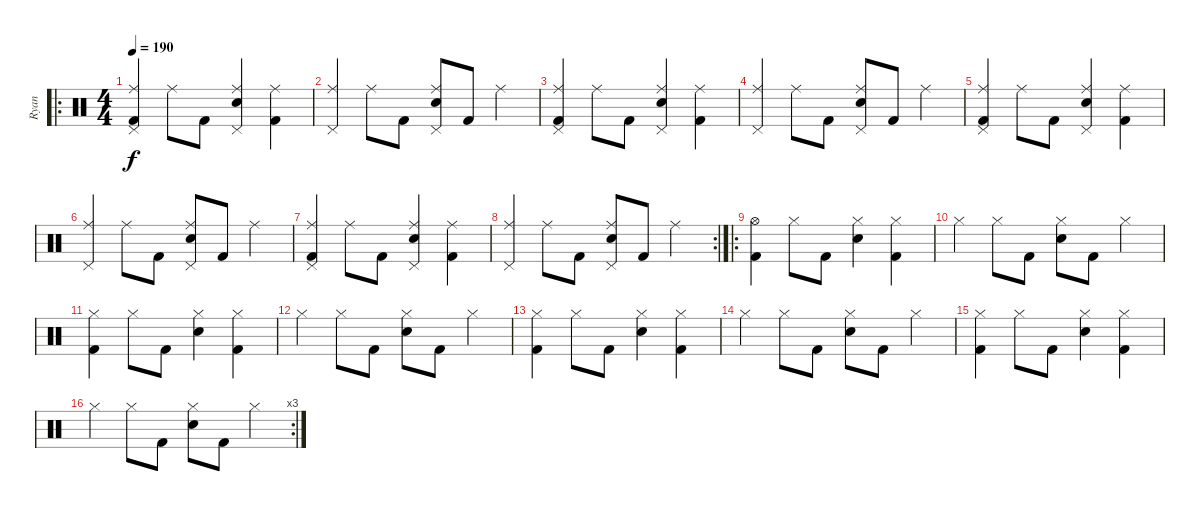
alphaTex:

\track ("Ryan" "Ryan") {instrument percussion}
\staff {score}
\articulation defaults
\ro
\ts (4 4)
\tempo 190
\clef neutral
\ks c
("Pedal Hi-Hat (hit)" "Ride (middle)" "Kick (hit) 2").4{dy f} "Ride (middle)".8 "Kick (hit) 2".8 ("Pedal Hi-Hat (hit)" "Ride (middle)" "Snare (hit) 2").4 ("Ride (middle)" "Kick (hit) 2").4 |
("Pedal Hi-Hat (hit)" "Ride (middle)").4 "Ride (middle)".8 "Kick (hit) 2".8 ("Pedal Hi-Hat (hit)" "Ride (middle)" "Snare (hit) 2").8 "Kick (hit) 2".8 "Ride (middle)".4 |
("Pedal Hi-Hat (hit)" "Ride (middle)" "Kick (hit) 2").4 "Ride (middle)".8 "Kick (hit) 2".8 ("Pedal Hi-Hat (hit)" "Ride (middle)" "Snare (hit) 2").4 ("Ride (middle)" "Kick (hit) 2").4 |
("Pedal Hi-Hat (hit)" "Ride (middle)").4 "Ride (middle)".8 "Kick (hit) 2".8 ("Pedal Hi-Hat (hit)" "Ride (middle)" "Snare (hit) 2").8 "Kick (hit) 2".8 "Ride (middle)".4 |
("Pedal Hi-Hat (hit)" "Ride (middle)" "Kick (hit) 2").4 "Ride (middle)".8 "Kick (hit) 2".8 ("Pedal Hi-Hat (hit)" "Ride (middle)" "Snare (hit) 2").4 ("Ride (middle)" "Kick (hit) 2").4 |
("Pedal Hi-Hat (hit)" "Ride (middle)").4 "Ride (middle)".8 "Kick (hit) 2".8 ("Pedal Hi-Hat (hit)" "Ride (middle)" "Snare (hit) 2").8 "Kick (hit) 2".8 "Ride (middle)".4 |
("Pedal Hi-Hat (hit)" "Ride (middle)" "Kick (hit) 2").4 "Ride (middle)".8 "Kick (hit) 2".8 ("Pedal Hi-Hat (hit)" "Ride (middle)" "Snare (hit) 2").4 ("Ride (middle)" "Kick (hit) 2").4 |
\rc 2
("Pedal Hi-Hat (hit)" "Ride (middle)").4 "Ride (middle)".8 "Kick (hit) 2".8 ("Pedal Hi-Hat (hit)" "Ride (middle)" "Snare (hit) 2").8 "Kick (hit) 2".8 "Ride (middle)".4 |
\ro
("Hi-Hat (open)" "Kick (hit) 2").4 "Hi-Hat (closed)".8 "Kick (hit) 2".8 ("Hi-Hat (closed)" "Snare (hit) 2").4 ("Hi-Hat (closed)" "Kick (hit) 2").4 |
"Hi-Hat (closed)".4 "Hi-Hat (closed)".8 "Kick (hit) 2".8 ("Hi-Hat (closed)" "Snare (hit) 2").8 "Kick (hit) 2".8 "Hi-Hat (closed)".4 |
("Hi-Hat (closed)" "Kick (hit) 2").4 "Hi-Hat (closed)".8 "Kick (hit) 2".8 ("Hi-Hat (closed)" "Snare (hit) 2").4 ("Hi-Hat (closed)" "Kick (hit) 2").4 |
"Hi-Hat (closed)".4 "Hi-Hat (closed)".8 "Kick (hit) 2".8 ("Hi-Hat (closed)" "Snare (hit) 2").8 "Kick (hit) 2".8 "Hi-Hat (closed)".4 |
("Hi-Hat (closed)" "Kick (hit) 2").4 "Hi-Hat (closed)".8 "Kick (hit) 2".8 ("Hi-Hat (closed)" "Snare (hit) 2").4 ("Hi-Hat (closed)" "Kick (hit) 2").4 |
"Hi-Hat (closed)".4 "Hi-Hat (closed)".8 "Kick (hit) 2".8 ("Hi-Hat (closed)" "Snare (hit) 2").8 "Kick (hit) 2".8 "Hi-Hat (closed)".4 |
("Hi-Hat (closed)" "Kick (hit) 2").4 "Hi-Hat (closed)".8 "Kick (hit) 2".8 ("Hi-Hat (closed)" "Snare (hit) 2").4 ("Hi-Hat (closed)" "Kick (hit) 2").4 |
\rc 3 "Hi-Hat (closed)".4 "Hi-Hat (closed)".8 "Kick (hit) 2".8
("Hi-Hat (closed)" "Snare (hit) 2").8 "Kick (hit) 2".8 "Hi-Hat (closed)".4
